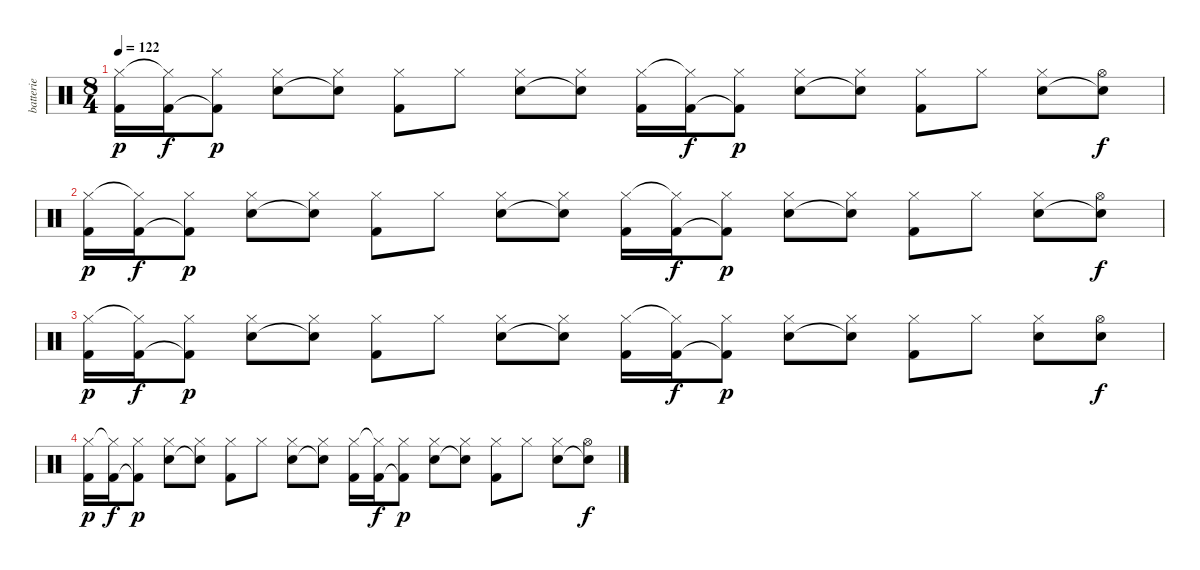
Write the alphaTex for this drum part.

\track ("batterie" "batterie") {instrument percussion}
\staff {score}
\articulation defaults
\ts (8 4)
\tempo 122
\clef neutral
\ks c
("Hi-Hat (closed)" "Kick (hit) 2").16{dy p} ("Hi-Hat (closed)"{t} "Kick (hit) 2").16{dy f} ("Hi-Hat (closed)" "Kick (hit) 2"{t}).8{dy p} ("Hi-Hat (closed)" "Snare (hit) 2").8 ("Hi-Hat (closed)" "Snare (hit) 2"{t}).8 ("Hi-Hat (closed)" "Kick (hit) 2").8 "Hi-Hat (closed)".8 ("Hi-Hat (closed)" "Snare (hit) 2").8 ("Hi-Hat (closed)" "Snare (hit) 2"{t}).8 ("Hi-Hat (closed)" "Kick (hit) 2").16 ("Hi-Hat (closed)"{t} "Kick (hit) 2").16{dy f} ("Hi-Hat (closed)" "Kick (hit) 2"{t}).8{dy p} ("Hi-Hat (closed)" "Snare (hit) 2").8 ("Hi-Hat (closed)" "Snare (hit)"{t}).8 ("Hi-Hat (closed)" "Kick (hit) 2").8 "Hi-Hat (closed)".8 ("Hi-Hat (closed)" "Snare (hit) 2").8 ("Hi-Hat (open)" "Snare (hit) 2"{t}).8{dy f} |
("Hi-Hat (closed)" "Kick (hit) 2").16{dy p} ("Hi-Hat (closed)"{t} "Kick (hit) 2").16{dy f} ("Hi-Hat (closed)" "Kick (hit) 2"{t}).8{dy p} ("Hi-Hat (closed)" "Snare (hit) 2").8 ("Hi-Hat (closed)" "Snare (hit) 2"{t}).8 ("Hi-Hat (closed)" "Kick (hit) 2").8 "Hi-Hat (closed)".8 ("Hi-Hat (closed)" "Snare (hit) 2").8 ("Hi-Hat (closed)" "Snare (hit) 2"{t}).8 ("Hi-Hat (closed)" "Kick (hit) 2").16 ("Hi-Hat (closed)"{t} "Kick (hit) 2").16{dy f} ("Hi-Hat (closed)" "Kick (hit) 2"{t}).8{dy p} ("Hi-Hat (closed)" "Snare (hit) 2").8 ("Hi-Hat (closed)" "Snare (hit)"{t}).8 ("Hi-Hat (closed)" "Kick (hit) 2").8 "Hi-Hat (closed)".8 ("Hi-Hat (closed)" "Snare (hit) 2").8 ("Hi-Hat (open)" "Snare (hit) 2"{t}).8{dy f} |
("Hi-Hat (closed)" "Kick (hit) 2").16{dy p} ("Hi-Hat (closed)"{t} "Kick (hit) 2").16{dy f} ("Hi-Hat (closed)" "Kick (hit) 2"{t}).8{dy p} ("Hi-Hat (closed)" "Snare (hit) 2").8 ("Hi-Hat (closed)" "Snare (hit) 2"{t}).8 ("Hi-Hat (closed)" "Kick (hit) 2").8 "Hi-Hat (closed)".8 ("Hi-Hat (closed)" "Snare (hit) 2").8 ("Hi-Hat (closed)" "Snare (hit) 2"{t}).8 ("Hi-Hat (closed)" "Kick (hit) 2").16 ("Hi-Hat (closed)"{t} "Kick (hit) 2").16{dy f} ("Hi-Hat (closed)" "Kick (hit) 2"{t}).8{dy p} ("Hi-Hat (closed)" "Snare (hit) 2").8 ("Hi-Hat (closed)" "Snare (hit)"{t}).8 ("Hi-Hat (closed)" "Kick (hit) 2").8 "Hi-Hat (closed)".8 ("Hi-Hat (closed)" "Snare (hit) 2").8 ("Hi-Hat (open)" "Snare (hit) 2").8{dy f} |
("Hi-Hat (closed)" "Kick (hit) 2").16{dy p} ("Hi-Hat (closed)"{t} "Kick (hit) 2").16{dy f} ("Hi-Hat (closed)" "Kick (hit) 2"{t}).8{dy p} ("Hi-Hat (closed)" "Snare (hit) 2").8 ("Hi-Hat (closed)" "Snare (hit) 2"{t}).8 ("Hi-Hat (closed)" "Kick (hit) 2").8 "Hi-Hat (closed)".8 ("Hi-Hat (closed)" "Snare (hit) 2").8 ("Hi-Hat (closed)" "Snare (hit) 2"{t}).8 ("Hi-Hat (closed)" "Kick (hit) 2").16 ("Hi-Hat (closed)"{t} "Kick (hit) 2").16{dy f} ("Hi-Hat (closed)" "Kick (hit) 2"{t}).8{dy p} ("Hi-Hat (closed)" "Snare (hit) 2").8 ("Hi-Hat (closed)" "Snare (hit)"{t}).8 ("Hi-Hat (closed)" "Kick (hit) 2").8 "Hi-Hat (closed)".8 ("Hi-Hat (closed)" "Snare (hit) 2").8 ("Hi-Hat (open)" "Snare (hit) 2"{t}).8{dy f}
